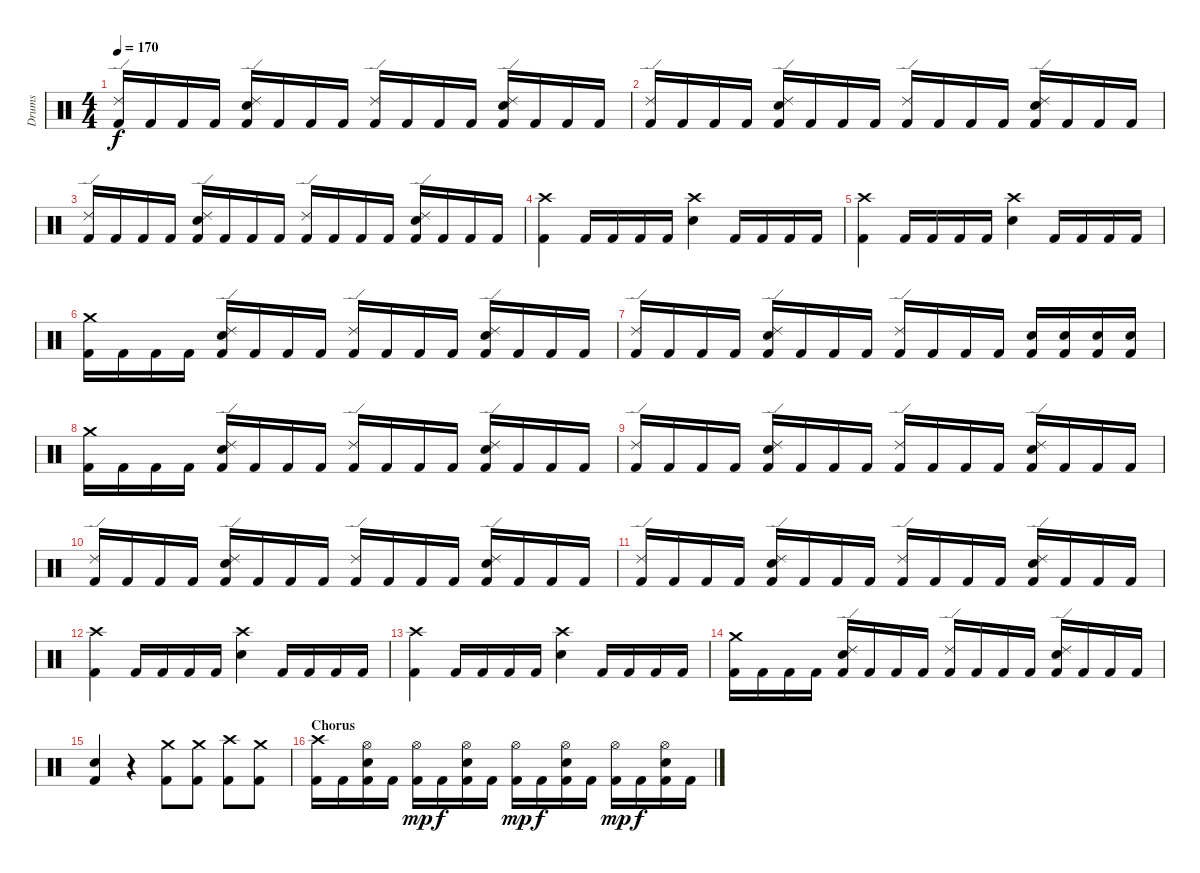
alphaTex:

\track ("Drums" "Drums") {instrument percussion}
\staff {score}
\articulation defaults
\ts (4 4)
\tempo 170
\clef neutral
\ks c
("Kick (hit) 2" "Ride (edge) 2").16{dy f} "Kick (hit) 2".16 "Kick (hit) 2".16 "Kick (hit) 2".16 ("Kick (hit) 2" "Electric Snare (hit)" "Ride (edge) 2").16 "Kick (hit) 2".16 "Kick (hit) 2".16 "Kick (hit) 2".16 ("Kick (hit) 2" "Ride (edge) 2").16 "Kick (hit) 2".16 "Kick (hit) 2".16 "Kick (hit) 2".16 ("Kick (hit) 2" "Electric Snare (hit)" "Ride (edge) 2").16 "Kick (hit) 2".16 "Kick (hit) 2".16 "Kick (hit) 2".16 |
("Kick (hit) 2" "Ride (edge) 2").16 "Kick (hit) 2".16 "Kick (hit) 2".16 "Kick (hit) 2".16 ("Kick (hit) 2" "Electric Snare (hit)" "Ride (edge) 2").16 "Kick (hit) 2".16 "Kick (hit) 2".16 "Kick (hit) 2".16 ("Kick (hit) 2" "Ride (edge) 2").16 "Kick (hit) 2".16 "Kick (hit) 2".16 "Kick (hit) 2".16 ("Kick (hit) 2" "Electric Snare (hit)" "Ride (edge) 2").16 "Kick (hit) 2".16 "Kick (hit) 2".16 "Kick (hit) 2".16 |
("Kick (hit) 2" "Ride (edge) 2").16 "Kick (hit) 2".16 "Kick (hit) 2".16 "Kick (hit) 2".16 ("Kick (hit) 2" "Electric Snare (hit)" "Ride (edge) 2").16 "Kick (hit) 2".16 "Kick (hit) 2".16 "Kick (hit) 2".16 ("Kick (hit) 2" "Ride (edge) 2").16 "Kick (hit) 2".16 "Kick (hit) 2".16 "Kick (hit) 2".16 ("Kick (hit) 2" "Electric Snare (hit)" "Ride (edge) 2").16 "Kick (hit) 2".16 "Kick (hit) 2".16 "Kick (hit) 2".16 |
("Kick (hit) 2" "Crash high (hit)").4 "Kick (hit) 2".16 "Kick (hit) 2".16 "Kick (hit) 2".16 "Kick (hit) 2".16 ("Electric Snare (hit)" "Crash high (hit)").4 "Kick (hit) 2".16 "Kick (hit) 2".16 "Kick (hit) 2".16 "Kick (hit) 2".16 |
("Kick (hit) 2" "Crash high (hit)").4 "Kick (hit) 2".16 "Kick (hit) 2".16 "Kick (hit) 2".16 "Kick (hit) 2".16 ("Electric Snare (hit)" "Crash high (hit)").4 "Kick (hit) 2".16 "Kick (hit) 2".16 "Kick (hit) 2".16 "Kick (hit) 2".16 |
("Kick (hit) 2" "Crash medium (hit)").16 "Kick (hit) 2".16 "Kick (hit) 2".16 "Kick (hit) 2".16 ("Kick (hit) 2" "Electric Snare (hit)" "Ride (edge) 2").16 "Kick (hit) 2".16 "Kick (hit) 2".16 "Kick (hit) 2".16 ("Kick (hit) 2" "Ride (edge) 2").16 "Kick (hit) 2".16 "Kick (hit) 2".16 "Kick (hit) 2".16 ("Kick (hit) 2" "Electric Snare (hit)" "Ride (edge) 2").16 "Kick (hit) 2".16 "Kick (hit) 2".16 "Kick (hit) 2".16 |
("Kick (hit) 2" "Ride (edge) 2").16 "Kick (hit) 2".16 "Kick (hit) 2".16 "Kick (hit) 2".16 ("Kick (hit) 2" "Electric Snare (hit)" "Ride (edge) 2").16 "Kick (hit) 2".16 "Kick (hit) 2".16 "Kick (hit) 2".16 ("Kick (hit) 2" "Ride (edge) 2").16 "Kick (hit) 2".16 "Kick (hit) 2".16 "Kick (hit) 2".16 ("Kick (hit) 2" "Electric Snare (hit)").16 ("Kick (hit) 2" "Electric Snare (hit)").16 ("Kick (hit) 2" "Electric Snare (hit)").16 ("Kick (hit) 2" "Electric Snare (hit)").16 |
("Kick (hit) 2" "Crash medium (hit)").16 "Kick (hit) 2".16 "Kick (hit) 2".16 "Kick (hit) 2".16 ("Kick (hit) 2" "Electric Snare (hit)" "Ride (edge) 2").16 "Kick (hit) 2".16 "Kick (hit) 2".16 "Kick (hit) 2".16 ("Kick (hit) 2" "Ride (edge) 2").16 "Kick (hit) 2".16 "Kick (hit) 2".16 "Kick (hit) 2".16 ("Kick (hit) 2" "Electric Snare (hit)" "Ride (edge) 2").16 "Kick (hit) 2".16 "Kick (hit) 2".16 "Kick (hit) 2".16 |
("Kick (hit) 2" "Ride (edge) 2").16 "Kick (hit) 2".16 "Kick (hit) 2".16 "Kick (hit) 2".16 ("Kick (hit) 2" "Electric Snare (hit)" "Ride (edge) 2").16 "Kick (hit) 2".16 "Kick (hit) 2".16 "Kick (hit) 2".16 ("Kick (hit) 2" "Ride (edge) 2").16 "Kick (hit) 2".16 "Kick (hit) 2".16 "Kick (hit) 2".16 ("Kick (hit) 2" "Electric Snare (hit)" "Ride (edge) 2").16 "Kick (hit) 2".16 "Kick (hit) 2".16 "Kick (hit) 2".16 |
("Kick (hit) 2" "Ride (edge) 2").16 "Kick (hit) 2".16 "Kick (hit) 2".16 "Kick (hit) 2".16 ("Kick (hit) 2" "Electric Snare (hit)" "Ride (edge) 2").16 "Kick (hit) 2".16 "Kick (hit) 2".16 "Kick (hit) 2".16 ("Kick (hit) 2" "Ride (edge) 2").16 "Kick (hit) 2".16 "Kick (hit) 2".16 "Kick (hit) 2".16 ("Kick (hit) 2" "Electric Snare (hit)" "Ride (edge) 2").16 "Kick (hit) 2".16 "Kick (hit) 2".16 "Kick (hit) 2".16 |
("Kick (hit) 2" "Ride (edge) 2").16 "Kick (hit) 2".16 "Kick (hit) 2".16 "Kick (hit) 2".16 ("Kick (hit) 2" "Electric Snare (hit)" "Ride (edge) 2").16 "Kick (hit) 2".16 "Kick (hit) 2".16 "Kick (hit) 2".16 ("Kick (hit) 2" "Ride (edge) 2").16 "Kick (hit) 2".16 "Kick (hit) 2".16 "Kick (hit) 2".16 ("Kick (hit) 2" "Electric Snare (hit)" "Ride (edge) 2").16 "Kick (hit) 2".16 "Kick (hit) 2".16 "Kick (hit) 2".16 |
("Kick (hit) 2" "Crash high (hit)").4 "Kick (hit) 2".16 "Kick (hit) 2".16 "Kick (hit) 2".16 "Kick (hit) 2".16 ("Electric Snare (hit)" "Crash high (hit)").4 "Kick (hit) 2".16 "Kick (hit) 2".16 "Kick (hit) 2".16 "Kick (hit) 2".16 |
("Kick (hit) 2" "Crash high (hit)").4 "Kick (hit) 2".16 "Kick (hit) 2".16 "Kick (hit) 2".16 "Kick (hit) 2".16 ("Electric Snare (hit)" "Crash high (hit)").4 "Kick (hit) 2".16 "Kick (hit) 2".16 "Kick (hit) 2".16 "Kick (hit) 2".16 |
("Kick (hit) 2" "Crash medium (hit)").16 "Kick (hit) 2".16 "Kick (hit) 2".16 "Kick (hit) 2".16 ("Kick (hit) 2" "Electric Snare (hit)" "Ride (edge) 2").16 "Kick (hit) 2".16 "Kick (hit) 2".16 "Kick (hit) 2".16 ("Kick (hit) 2" "Ride (edge) 2").16 "Kick (hit) 2".16 "Kick (hit) 2".16 "Kick (hit) 2".16 ("Kick (hit) 2" "Electric Snare (hit)" "Ride (edge) 2").16 "Kick (hit) 2".16 "Kick (hit) 2".16 "Kick (hit) 2".16 |
("Kick (hit) 2" "Electric Snare (hit)").4 r.4 ("Kick (hit) 2" "Crash medium (hit)").8 ("Kick (hit) 2" "Crash medium (hit)").8 ("Kick (hit) 2" "Crash high (hit)").8 ("Kick (hit) 2" "Crash medium (hit)").8 |
\section ("" "Chorus")
("Kick (hit) 2" "Crash high (hit)").16 "Kick (hit) 2".16 ("Kick (hit) 2" "Electric Snare (hit)" "Hi-Hat (open)").16 "Kick (hit) 2".16 ("Kick (hit) 2" "Hi-Hat (open)").16{dy mp} "Kick (hit) 2".16{dy f} ("Kick (hit) 2" "Electric Snare (hit)" "Hi-Hat (open)").16 "Kick (hit) 2".16 ("Kick (hit) 2" "Hi-Hat (open)").16{dy mp} "Kick (hit) 2".16{dy f} ("Kick (hit) 2" "Electric Snare (hit)" "Hi-Hat (open)").16 "Kick (hit) 2".16 ("Kick (hit) 2" "Hi-Hat (open)").16{dy mp} "Kick (hit) 2".16{dy f} ("Kick (hit) 2" "Electric Snare (hit)" "Hi-Hat (open)").16 "Kick (hit) 2".16
